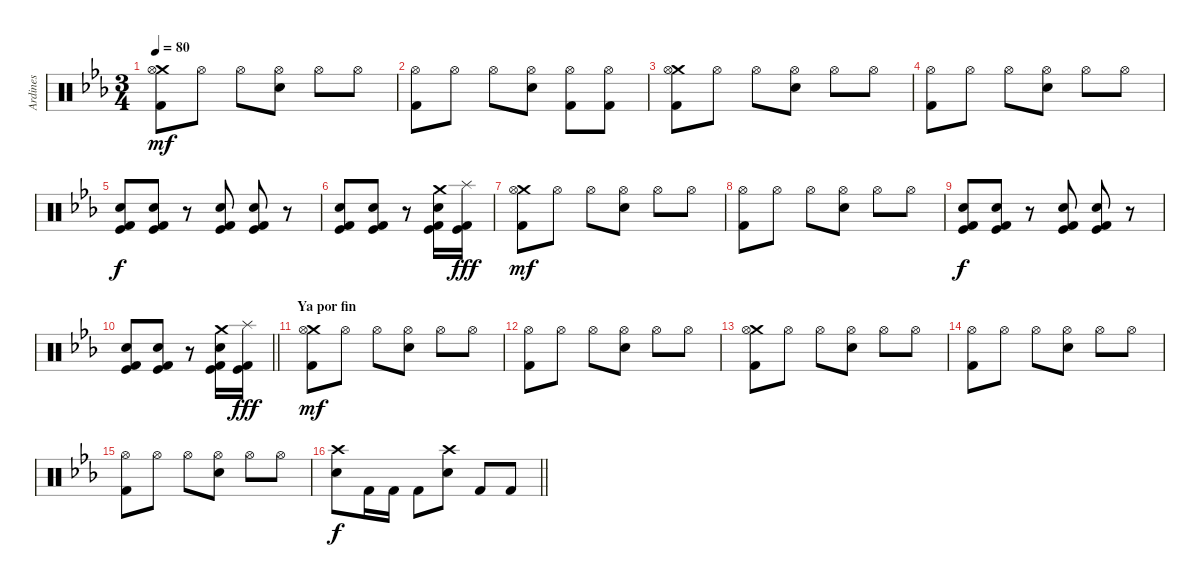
\track ("Ardines" "Ardines") {instrument percussion}
\staff {score}
\articulation defaults
\ts (3 4)
\tempo 80
\clef neutral
\ks eb
("Kick (hit) 2" "Crash medium (hit)" "Hi-Hat (open)").8{dy mf} "Hi-Hat (open)".8 "Hi-Hat (open)".8 ("Snare (hit) 2" "Hi-Hat (open)").8 "Hi-Hat (open)".8 "Hi-Hat (open)".8 |
("Kick (hit) 2" "Hi-Hat (open)").8 "Hi-Hat (open)".8 "Hi-Hat (open)".8 ("Snare (hit) 2" "Hi-Hat (open)").8 ("Kick (hit) 2" "Hi-Hat (open)").8 ("Kick (hit) 2" "Hi-Hat (open)").8 |
("Kick (hit) 2" "Crash medium (hit)" "Hi-Hat (open)").8 "Hi-Hat (open)".8 "Hi-Hat (open)".8 ("Snare (hit) 2" "Hi-Hat (open)").8 "Hi-Hat (open)".8 "Hi-Hat (open)".8 |
("Kick (hit) 2" "Hi-Hat (open)").8 "Hi-Hat (open)".8 "Hi-Hat (open)".8 ("Snare (hit) 2" "Hi-Hat (open)").8 "Hi-Hat (open)".8 "Hi-Hat (open)".8 |
("Snare (hit) 2" "Kick (hit) 2" "Kick (hit)").8{dy f} ("Snare (hit) 2" "Kick (hit) 2" "Kick (hit)").8 r.8 ("Snare (hit) 2" "Kick (hit) 2" "Kick (hit)").8 ("Snare (hit) 2" "Kick (hit) 2" "Kick (hit)").8 r.8 |
("Snare (hit) 2" "Kick (hit) 2" "Kick (hit)").8 ("Snare (hit) 2" "Kick (hit) 2" "Kick (hit)").8 r.8 ("Snare (hit) 2" "Kick (hit) 2" "Kick (hit)" "Crash medium (hit)").16 ("Kick (hit) 2" "Kick (hit)" "Splash (hit)").16{dy fff} |
("Kick (hit) 2" "Crash medium (hit)" "Hi-Hat (open)").8{dy mf} "Hi-Hat (open)".8 "Hi-Hat (open)".8 ("Snare (hit) 2" "Hi-Hat (open)").8 "Hi-Hat (open)".8 "Hi-Hat (open)".8 |
("Kick (hit) 2" "Hi-Hat (open)").8 "Hi-Hat (open)".8 "Hi-Hat (open)".8 ("Snare (hit) 2" "Hi-Hat (open)").8 "Hi-Hat (open)".8 "Hi-Hat (open)".8 |
("Snare (hit) 2" "Kick (hit) 2" "Kick (hit)").8{dy f} ("Snare (hit) 2" "Kick (hit) 2" "Kick (hit)").8 r.8 ("Snare (hit) 2" "Kick (hit) 2" "Kick (hit)").8 ("Snare (hit) 2" "Kick (hit) 2" "Kick (hit)").8 r.8 |
\barLineRight lightlight
("Snare (hit) 2" "Kick (hit) 2" "Kick (hit)").8 ("Snare (hit) 2" "Kick (hit) 2" "Kick (hit)").8 r.8 ("Snare (hit) 2" "Kick (hit) 2" "Kick (hit)" "Crash medium (hit)").16 ("Kick (hit) 2" "Kick (hit)" "Splash (hit)").16{dy fff} |
\section ("" "Ya por fin")
("Kick (hit) 2" "Crash medium (hit)" "Hi-Hat (open)").8{dy mf} "Hi-Hat (open)".8 "Hi-Hat (open)".8 ("Snare (hit) 2" "Hi-Hat (open)").8 "Hi-Hat (open)".8 "Hi-Hat (open)".8 |
("Kick (hit) 2" "Hi-Hat (open)").8 "Hi-Hat (open)".8 "Hi-Hat (open)".8 ("Snare (hit) 2" "Hi-Hat (open)").8 "Hi-Hat (open)".8 "Hi-Hat (open)".8 |
("Kick (hit) 2" "Crash medium (hit)" "Hi-Hat (open)").8 "Hi-Hat (open)".8 "Hi-Hat (open)".8 ("Snare (hit) 2" "Hi-Hat (open)").8 "Hi-Hat (open)".8 "Hi-Hat (open)".8 |
("Kick (hit) 2" "Hi-Hat (open)").8 "Hi-Hat (open)".8 "Hi-Hat (open)".8 ("Snare (hit) 2" "Hi-Hat (open)").8 "Hi-Hat (open)".8 "Hi-Hat (open)".8 |
("Kick (hit) 2" "Hi-Hat (open)").8 "Hi-Hat (open)".8 "Hi-Hat (open)".8 ("Snare (hit) 2" "Hi-Hat (open)").8 "Hi-Hat (open)".8 "Hi-Hat (open)".8 |
\barLineRight lightlight
("Snare (hit) 2" "Crash high (hit)").8{dy f} "Kick (hit) 2".16 "Kick (hit) 2".16 "Kick (hit) 2".8 ("Snare (hit) 2" "Crash high (hit)").8 "Kick (hit) 2".8 "Kick (hit) 2".8
